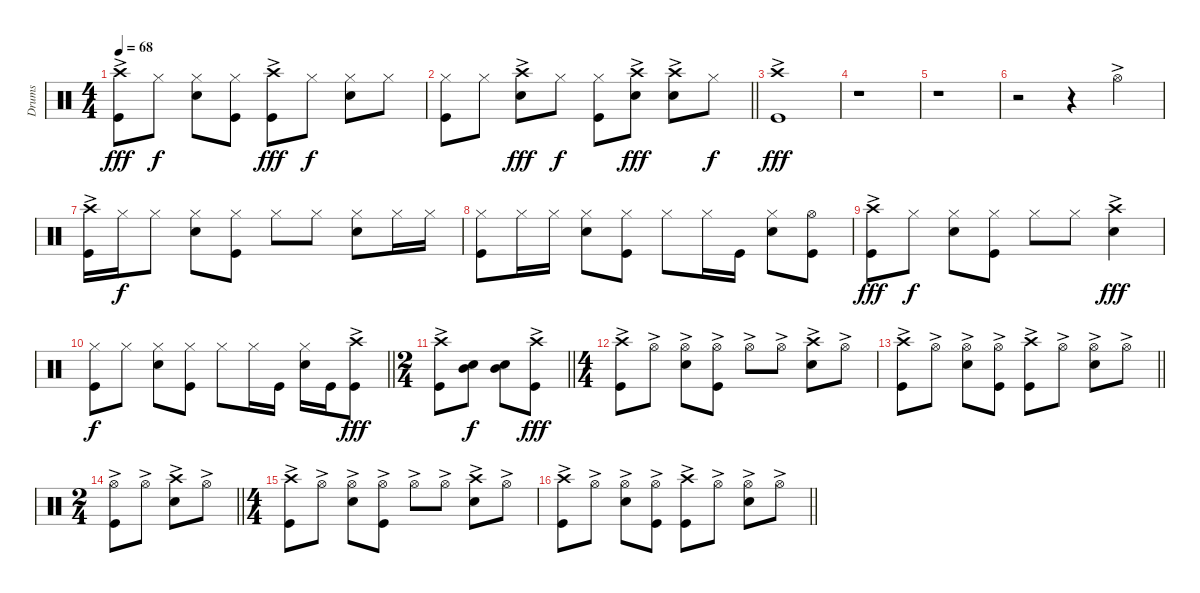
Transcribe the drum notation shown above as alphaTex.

\track ("Drums" "Drums") {instrument percussion}
\staff {score}
\articulation defaults
\ts (4 4)
\tempo 68
\clef neutral
\ks c
("Crash high (hit)"{ac} "Kick (hit)").8{dy fff} "Hi-Hat (closed)".8{dy f} ("Hi-Hat (closed)" "Snare (hit) 2").8 ("Hi-Hat (closed)" "Kick (hit)").8 ("Crash high (hit)"{ac} "Kick (hit)").8{dy fff} "Hi-Hat (closed)".8{dy f} ("Hi-Hat (closed)" "Snare (hit) 2").8 "Hi-Hat (closed)".8 |
\barLineRight lightlight
("Hi-Hat (closed)" "Kick (hit)").8 "Hi-Hat (closed)".8 ("Crash high (hit)"{ac} "Snare (hit) 2").8{dy fff} "Hi-Hat (closed)".8{dy f} ("Hi-Hat (closed)" "Kick (hit)").8 ("Crash high (hit)"{ac} "Snare (hit) 2").8{dy fff} ("Crash high (hit)"{ac} "Snare (hit) 2").8 "Hi-Hat (closed)".8{dy f} |
("Crash high (hit)"{ac} "Kick (hit)").1{dy fff} |
r.1 |
r.1 |
r.2 r.4 "Hi-Hat (open)"{ac}.4 |
("Crash high (hit)"{ac} "Kick (hit)").16 "Hi-Hat (closed)".16{dy f} "Hi-Hat (closed)".8 ("Hi-Hat (closed)" "Snare (hit) 2").8 ("Hi-Hat (closed)" "Kick (hit)").8 "Hi-Hat (closed)".8 "Hi-Hat (closed)".8 ("Hi-Hat (closed)" "Snare (hit) 2").8 "Hi-Hat (closed)".16 "Hi-Hat (closed)".16 |
("Hi-Hat (closed)" "Kick (hit)").8 "Hi-Hat (closed)".16 "Hi-Hat (closed)".16 ("Hi-Hat (closed)" "Snare (hit) 2").8 ("Hi-Hat (closed)" "Kick (hit)").8 "Hi-Hat (closed)".8 "Hi-Hat (closed)".16 "Kick (hit)".16 ("Hi-Hat (closed)" "Snare (hit) 2").8 ("Hi-Hat (open)" "Kick (hit)").8 |
("Crash high (hit)"{ac} "Kick (hit)").8{dy fff} "Hi-Hat (closed)".8{dy f} ("Hi-Hat (closed)" "Snare (hit) 2").8 ("Hi-Hat (closed)" "Kick (hit)").8 "Hi-Hat (closed)".8 "Hi-Hat (closed)".8 ("Crash high (hit)"{ac} "Snare (hit) 2").4{dy fff} |
\barLineRight lightlight
("Hi-Hat (closed)" "Kick (hit)").8{dy f} "Hi-Hat (closed)".8 ("Hi-Hat (closed)" "Snare (hit) 2").8 ("Hi-Hat (closed)" "Kick (hit)").8 "Hi-Hat (closed)".8 "Hi-Hat (closed)".16 "Kick (hit)".16 ("Hi-Hat (closed)" "Snare (hit) 2").16 "Kick (hit)".16 ("Crash high (hit)"{ac} "Kick (hit)").8{dy fff} |
\ts (2 4)
\barLineRight lightlight
("Crash high (hit)"{ac} "Kick (hit)").8 ("Mid Tom (hit)" "Snare (hit) 2").8{dy f} ("Mid Tom (hit)" "Snare (hit) 2").8 ("Crash high (hit)"{ac} "Kick (hit)").8{dy fff} |
\ts (4 4)
("Crash high (hit)"{ac} "Kick (hit)").8 "Hi-Hat (open)"{ac}.8 ("Hi-Hat (open)"{ac} "Snare (hit) 2").8 ("Hi-Hat (open)"{ac} "Kick (hit)").8 "Hi-Hat (open)"{ac}.8 "Hi-Hat (open)"{ac}.8 ("Crash high (hit)"{ac} "Snare (hit) 2").8 "Hi-Hat (open)"{ac}.8 |
\barLineRight lightlight
("Crash high (hit)"{ac} "Kick (hit)").8 "Hi-Hat (open)"{ac}.8 ("Hi-Hat (open)"{ac} "Snare (hit) 2").8 ("Hi-Hat (open)"{ac} "Kick (hit)").8 ("Crash high (hit)"{ac} "Kick (hit)").8 "Hi-Hat (open)"{ac}.8 ("Hi-Hat (open)"{ac} "Snare (hit) 2").8 "Hi-Hat (open)"{ac}.8 |
\ts (2 4)
\barLineRight lightlight
("Hi-Hat (open)"{ac} "Kick (hit)").8 "Hi-Hat (open)"{ac}.8 ("Crash high (hit)"{ac} "Snare (hit) 2").8 "Hi-Hat (open)"{ac}.8 |
\ts (4 4)
("Crash high (hit)"{ac} "Kick (hit)").8 "Hi-Hat (open)"{ac}.8 ("Hi-Hat (open)"{ac} "Snare (hit) 2").8 ("Hi-Hat (open)"{ac} "Kick (hit)").8 "Hi-Hat (open)"{ac}.8 "Hi-Hat (open)"{ac}.8 ("Crash high (hit)"{ac} "Snare (hit) 2").8 "Hi-Hat (open)"{ac}.8 |
\barLineRight lightlight
("Crash high (hit)"{ac} "Kick (hit)").8 "Hi-Hat (open)"{ac}.8 ("Hi-Hat (open)"{ac} "Snare (hit) 2").8 ("Hi-Hat (open)"{ac} "Kick (hit)").8 ("Crash high (hit)"{ac} "Kick (hit)").8 "Hi-Hat (open)"{ac}.8 ("Hi-Hat (open)"{ac} "Snare (hit) 2").8 "Hi-Hat (open)"{ac}.8
